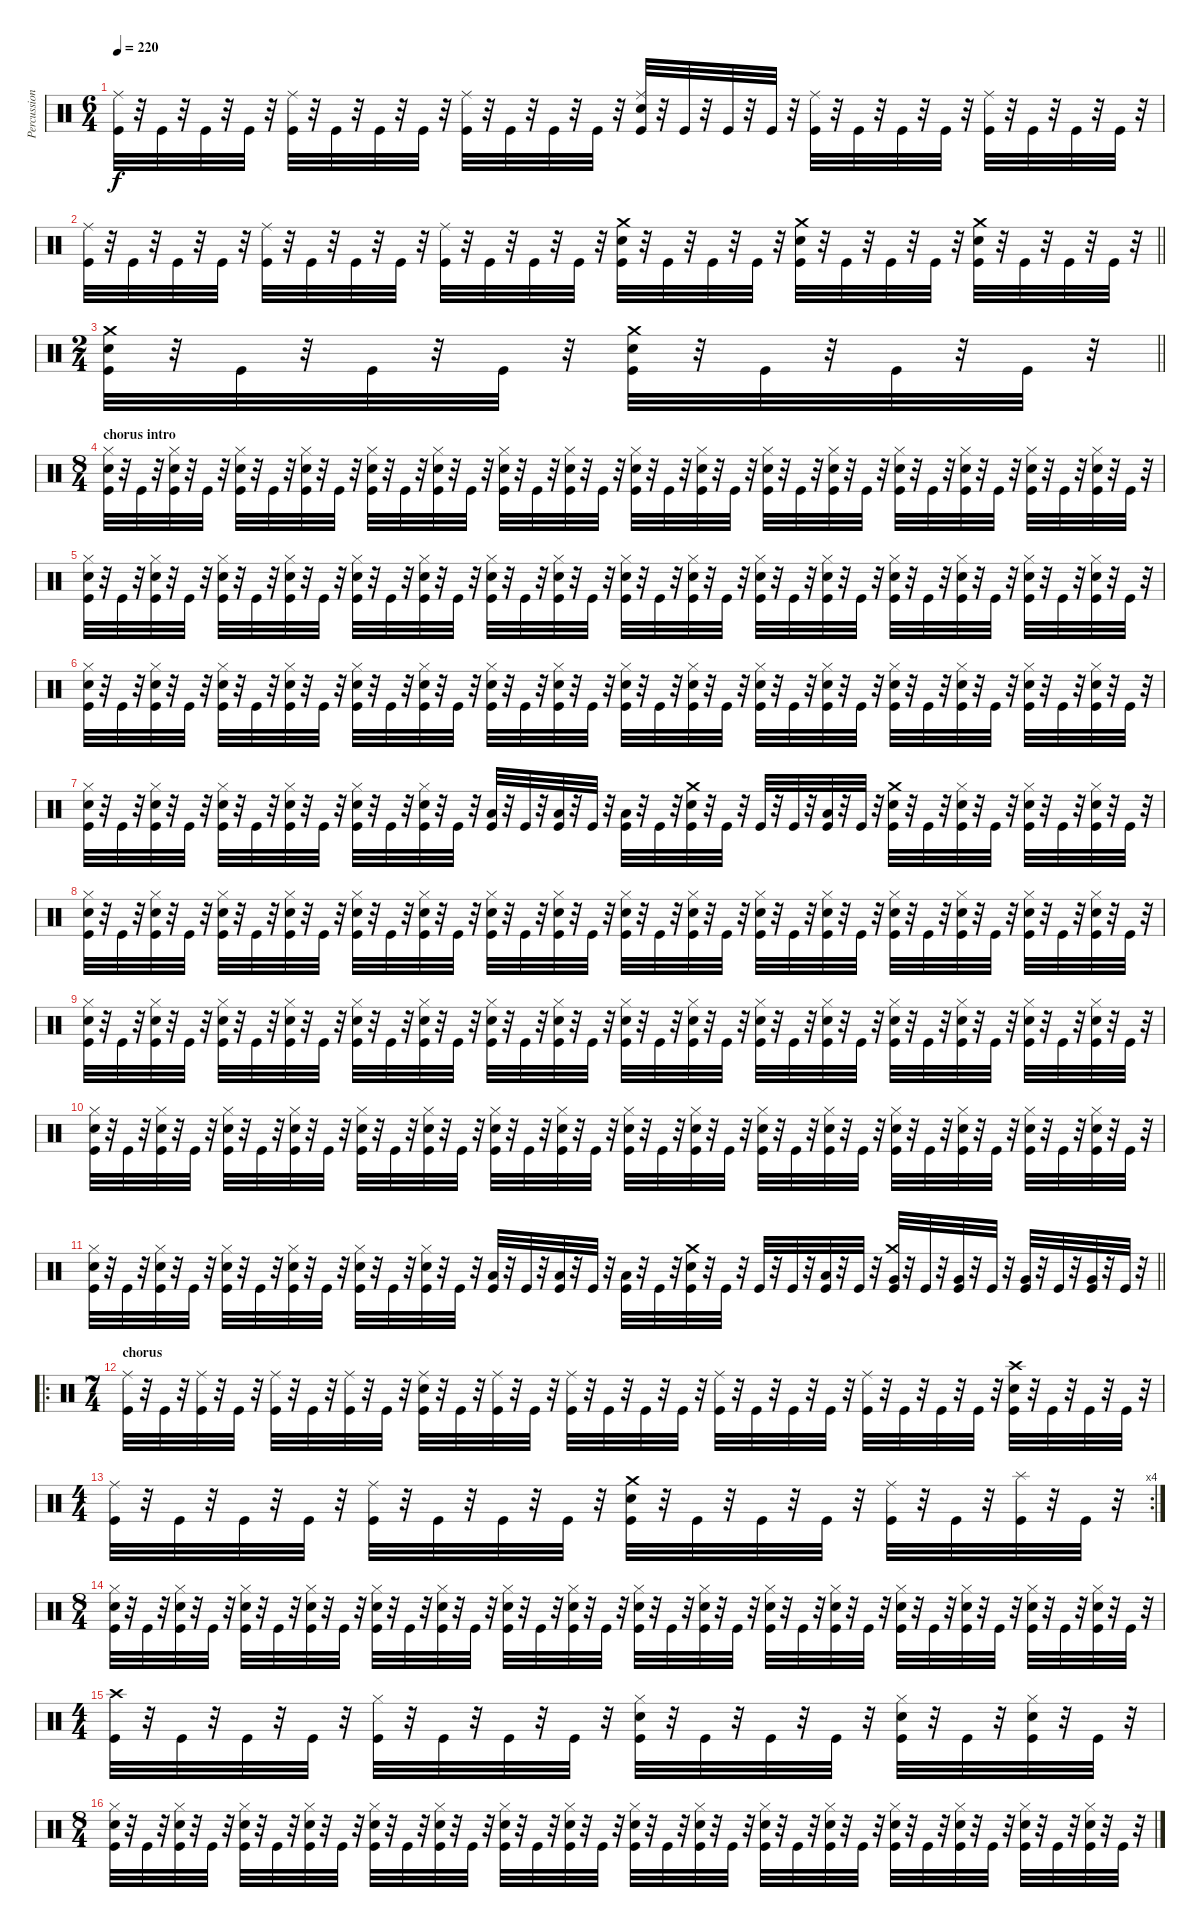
\track ("Percussion" "Percussion") {instrument percussion}
\staff {score}
\articulation defaults
\ts (6 4)
\tempo 220
\clef neutral
\ks c
("Kick (hit)" "Ride (middle)").32{dy f} r.32 "Kick (hit)".32 r.32 "Kick (hit)".32 r.32 "Kick (hit)".32 r.32 ("Kick (hit)" "Ride (middle)").32 r.32 "Kick (hit)".32 r.32 "Kick (hit)".32 r.32 "Kick (hit)".32 r.32 ("Kick (hit)" "Ride (middle)").32 r.32 "Kick (hit)".32 r.32 "Kick (hit)".32 r.32 "Kick (hit)".32 r.32 ("Kick (hit)" "Electric Snare (hit)" "Ride (middle)").32 r.32 "Kick (hit)".32 r.32 "Kick (hit)".32 r.32 "Kick (hit)".32 r.32 ("Kick (hit)" "Ride (middle)").32 r.32 "Kick (hit)".32 r.32 "Kick (hit)".32 r.32 "Kick (hit)".32 r.32 ("Kick (hit)" "Ride (middle)").32 r.32 "Kick (hit)".32 r.32 "Kick (hit)".32 r.32 "Kick (hit)".32 r.32 |
\barLineRight lightlight
("Kick (hit)" "Ride (middle)").32 r.32 "Kick (hit)".32 r.32 "Kick (hit)".32 r.32 "Kick (hit)".32 r.32 ("Kick (hit)" "Ride (middle)").32 r.32 "Kick (hit)".32 r.32 "Kick (hit)".32 r.32 "Kick (hit)".32 r.32 ("Kick (hit)" "Ride (middle)").32 r.32 "Kick (hit)".32 r.32 "Kick (hit)".32 r.32 "Kick (hit)".32 r.32 ("Kick (hit)" "Electric Snare (hit)" "Crash medium (hit)").32 r.32 "Kick (hit)".32 r.32 "Kick (hit)".32 r.32 "Kick (hit)".32 r.32 ("Kick (hit)" "Electric Snare (hit)" "Crash medium (hit)").32 r.32 "Kick (hit)".32 r.32 "Kick (hit)".32 r.32 "Kick (hit)".32 r.32 ("Kick (hit)" "Electric Snare (hit)" "Crash medium (hit)").32 r.32 "Kick (hit)".32 r.32 "Kick (hit)".32 r.32 "Kick (hit)".32 r.32 |
\ts (2 4)
\barLineRight lightlight
("Kick (hit)" "Electric Snare (hit)" "Crash medium (hit)").32 r.32 "Kick (hit)".32 r.32 "Kick (hit)".32 r.32 "Kick (hit)".32 r.32 ("Kick (hit)" "Electric Snare (hit)" "Crash medium (hit)").32 r.32 "Kick (hit)".32 r.32 "Kick (hit)".32 r.32 "Kick (hit)".32 r.32 |
\ts (8 4)
\section ("" "chorus intro")
("Electric Snare (hit)" "Kick (hit)" "Hi-Hat (closed)").32 r.32 "Kick (hit)".32 r.32 ("Electric Snare (hit)" "Kick (hit)" "Hi-Hat (closed)").32 r.32 "Kick (hit)".32 r.32 ("Electric Snare (hit)" "Kick (hit)" "Hi-Hat (closed)").32 r.32 "Kick (hit)".32 r.32 ("Electric Snare (hit)" "Kick (hit)" "Hi-Hat (closed)").32 r.32 "Kick (hit)".32 r.32 ("Electric Snare (hit)" "Kick (hit)" "Hi-Hat (closed)").32 r.32 "Kick (hit)".32 r.32 ("Electric Snare (hit)" "Kick (hit)" "Hi-Hat (closed)").32 r.32 "Kick (hit)".32 r.32 ("Electric Snare (hit)" "Kick (hit)" "Hi-Hat (closed)").32 r.32 "Kick (hit)".32 r.32 ("Electric Snare (hit)" "Kick (hit)" "Hi-Hat (closed)").32 r.32 "Kick (hit)".32 r.32 ("Electric Snare (hit)" "Kick (hit)" "Hi-Hat (closed)").32 r.32 "Kick (hit)".32 r.32 ("Electric Snare (hit)" "Kick (hit)" "Hi-Hat (closed)").32 r.32 "Kick (hit)".32 r.32 ("Electric Snare (hit)" "Kick (hit)" "Hi-Hat (closed)").32 r.32 "Kick (hit)".32 r.32 ("Electric Snare (hit)" "Kick (hit)" "Hi-Hat (closed)").32 r.32 "Kick (hit)".32 r.32 ("Kick (hit)" "Electric Snare (hit)" "Hi-Hat (closed)").32 r.32 "Kick (hit)".32 r.32 ("Kick (hit)" "Electric Snare (hit)" "Hi-Hat (closed)").32 r.32 "Kick (hit)".32 r.32 ("Kick (hit)" "Electric Snare (hit)" "Hi-Hat (closed)").32 r.32 "Kick (hit)".32 r.32 ("Kick (hit)" "Electric Snare (hit)" "Hi-Hat (closed)").32 r.32 "Kick (hit)".32 r.32 |
("Electric Snare (hit)" "Kick (hit)" "Hi-Hat (closed)").32 r.32 "Kick (hit)".32 r.32 ("Electric Snare (hit)" "Kick (hit)" "Hi-Hat (closed)").32 r.32 "Kick (hit)".32 r.32 ("Electric Snare (hit)" "Kick (hit)" "Hi-Hat (closed)").32 r.32 "Kick (hit)".32 r.32 ("Electric Snare (hit)" "Kick (hit)" "Hi-Hat (closed)").32 r.32 "Kick (hit)".32 r.32 ("Electric Snare (hit)" "Kick (hit)" "Hi-Hat (closed)").32 r.32 "Kick (hit)".32 r.32 ("Electric Snare (hit)" "Kick (hit)" "Hi-Hat (closed)").32 r.32 "Kick (hit)".32 r.32 ("Electric Snare (hit)" "Kick (hit)" "Hi-Hat (closed)").32 r.32 "Kick (hit)".32 r.32 ("Electric Snare (hit)" "Kick (hit)" "Hi-Hat (closed)").32 r.32 "Kick (hit)".32 r.32 ("Electric Snare (hit)" "Kick (hit)" "Hi-Hat (closed)").32 r.32 "Kick (hit)".32 r.32 ("Electric Snare (hit)" "Kick (hit)" "Hi-Hat (closed)").32 r.32 "Kick (hit)".32 r.32 ("Electric Snare (hit)" "Kick (hit)" "Hi-Hat (closed)").32 r.32 "Kick (hit)".32 r.32 ("Electric Snare (hit)" "Kick (hit)" "Hi-Hat (closed)").32 r.32 "Kick (hit)".32 r.32 ("Kick (hit)" "Electric Snare (hit)" "Hi-Hat (closed)").32 r.32 "Kick (hit)".32 r.32 ("Kick (hit)" "Electric Snare (hit)" "Hi-Hat (closed)").32 r.32 "Kick (hit)".32 r.32 ("Kick (hit)" "Electric Snare (hit)" "Hi-Hat (closed)").32 r.32 "Kick (hit)".32 r.32 ("Kick (hit)" "Electric Snare (hit)" "Hi-Hat (closed)").32 r.32 "Kick (hit)".32 r.32 |
("Electric Snare (hit)" "Kick (hit)" "Hi-Hat (closed)").32 r.32 "Kick (hit)".32 r.32 ("Electric Snare (hit)" "Kick (hit)" "Hi-Hat (closed)").32 r.32 "Kick (hit)".32 r.32 ("Electric Snare (hit)" "Kick (hit)" "Hi-Hat (closed)").32 r.32 "Kick (hit)".32 r.32 ("Electric Snare (hit)" "Kick (hit)" "Hi-Hat (closed)").32 r.32 "Kick (hit)".32 r.32 ("Electric Snare (hit)" "Kick (hit)" "Hi-Hat (closed)").32 r.32 "Kick (hit)".32 r.32 ("Electric Snare (hit)" "Kick (hit)" "Hi-Hat (closed)").32 r.32 "Kick (hit)".32 r.32 ("Electric Snare (hit)" "Kick (hit)" "Hi-Hat (closed)").32 r.32 "Kick (hit)".32 r.32 ("Electric Snare (hit)" "Kick (hit)" "Hi-Hat (closed)").32 r.32 "Kick (hit)".32 r.32 ("Electric Snare (hit)" "Kick (hit)" "Hi-Hat (closed)").32 r.32 "Kick (hit)".32 r.32 ("Electric Snare (hit)" "Kick (hit)" "Hi-Hat (closed)").32 r.32 "Kick (hit)".32 r.32 ("Electric Snare (hit)" "Kick (hit)" "Hi-Hat (closed)").32 r.32 "Kick (hit)".32 r.32 ("Electric Snare (hit)" "Kick (hit)" "Hi-Hat (closed)").32 r.32 "Kick (hit)".32 r.32 ("Kick (hit)" "Electric Snare (hit)" "Hi-Hat (closed)").32 r.32 "Kick (hit)".32 r.32 ("Kick (hit)" "Electric Snare (hit)" "Hi-Hat (closed)").32 r.32 "Kick (hit)".32 r.32 ("Kick (hit)" "Electric Snare (hit)" "Hi-Hat (closed)").32 r.32 "Kick (hit)".32 r.32 ("Kick (hit)" "Electric Snare (hit)" "Hi-Hat (closed)").32 r.32 "Kick (hit)".32 r.32 |
("Electric Snare (hit)" "Kick (hit)" "Hi-Hat (closed)").32 r.32 "Kick (hit)".32 r.32 ("Electric Snare (hit)" "Kick (hit)" "Hi-Hat (closed)").32 r.32 "Kick (hit)".32 r.32 ("Electric Snare (hit)" "Kick (hit)" "Hi-Hat (closed)").32 r.32 "Kick (hit)".32 r.32 ("Electric Snare (hit)" "Kick (hit)" "Hi-Hat (closed)").32 r.32 "Kick (hit)".32 r.32 ("Electric Snare (hit)" "Kick (hit)" "Hi-Hat (closed)").32 r.32 "Kick (hit)".32 r.32 ("Electric Snare (hit)" "Kick (hit)" "Hi-Hat (closed)").32 r.32 "Kick (hit)".32 r.32 ("Low Floor Tom (hit)" "Kick (hit)").32 r.32 "Kick (hit)".32 r.32 ("Low Floor Tom (hit)" "Kick (hit)").32 r.32 "Kick (hit)".32 r.32 ("Low Floor Tom (hit)" "Kick (hit)").32 r.32 "Kick (hit)".32 r.32 ("Electric Snare (hit)" "Kick (hit)" "Crash medium (hit)").32 r.32 "Kick (hit)".32 r.32 "Kick (hit)".32 r.32 "Kick (hit)".32 r.32 ("Low Floor Tom (hit)" "Kick (hit)").32 r.32 "Kick (hit)".32 r.32 ("Kick (hit)" "Electric Snare (hit)" "Crash medium (hit)").32 r.32 "Kick (hit)".32 r.32 ("Kick (hit)" "Electric Snare (hit)" "Hi-Hat (closed)").32 r.32 "Kick (hit)".32 r.32 ("Kick (hit)" "Electric Snare (hit)" "Hi-Hat (closed)").32 r.32 "Kick (hit)".32 r.32 ("Kick (hit)" "Electric Snare (hit)" "Hi-Hat (closed)").32 r.32 "Kick (hit)".32 r.32 |
("Electric Snare (hit)" "Kick (hit)" "Hi-Hat (closed)").32 r.32 "Kick (hit)".32 r.32 ("Electric Snare (hit)" "Kick (hit)" "Hi-Hat (closed)").32 r.32 "Kick (hit)".32 r.32 ("Electric Snare (hit)" "Kick (hit)" "Hi-Hat (closed)").32 r.32 "Kick (hit)".32 r.32 ("Electric Snare (hit)" "Kick (hit)" "Hi-Hat (closed)").32 r.32 "Kick (hit)".32 r.32 ("Electric Snare (hit)" "Kick (hit)" "Hi-Hat (closed)").32 r.32 "Kick (hit)".32 r.32 ("Electric Snare (hit)" "Kick (hit)" "Hi-Hat (closed)").32 r.32 "Kick (hit)".32 r.32 ("Electric Snare (hit)" "Kick (hit)" "Hi-Hat (closed)").32 r.32 "Kick (hit)".32 r.32 ("Electric Snare (hit)" "Kick (hit)" "Hi-Hat (closed)").32 r.32 "Kick (hit)".32 r.32 ("Electric Snare (hit)" "Kick (hit)" "Hi-Hat (closed)").32 r.32 "Kick (hit)".32 r.32 ("Electric Snare (hit)" "Kick (hit)" "Hi-Hat (closed)").32 r.32 "Kick (hit)".32 r.32 ("Electric Snare (hit)" "Kick (hit)" "Hi-Hat (closed)").32 r.32 "Kick (hit)".32 r.32 ("Electric Snare (hit)" "Kick (hit)" "Hi-Hat (closed)").32 r.32 "Kick (hit)".32 r.32 ("Kick (hit)" "Electric Snare (hit)" "Hi-Hat (closed)").32 r.32 "Kick (hit)".32 r.32 ("Kick (hit)" "Electric Snare (hit)" "Hi-Hat (closed)").32 r.32 "Kick (hit)".32 r.32 ("Kick (hit)" "Electric Snare (hit)" "Hi-Hat (closed)").32 r.32 "Kick (hit)".32 r.32 ("Kick (hit)" "Electric Snare (hit)" "Hi-Hat (closed)").32 r.32 "Kick (hit)".32 r.32 |
("Electric Snare (hit)" "Kick (hit)" "Hi-Hat (closed)").32 r.32 "Kick (hit)".32 r.32 ("Electric Snare (hit)" "Kick (hit)" "Hi-Hat (closed)").32 r.32 "Kick (hit)".32 r.32 ("Electric Snare (hit)" "Kick (hit)" "Hi-Hat (closed)").32 r.32 "Kick (hit)".32 r.32 ("Electric Snare (hit)" "Kick (hit)" "Hi-Hat (closed)").32 r.32 "Kick (hit)".32 r.32 ("Electric Snare (hit)" "Kick (hit)" "Hi-Hat (closed)").32 r.32 "Kick (hit)".32 r.32 ("Electric Snare (hit)" "Kick (hit)" "Hi-Hat (closed)").32 r.32 "Kick (hit)".32 r.32 ("Electric Snare (hit)" "Kick (hit)" "Hi-Hat (closed)").32 r.32 "Kick (hit)".32 r.32 ("Electric Snare (hit)" "Kick (hit)" "Hi-Hat (closed)").32 r.32 "Kick (hit)".32 r.32 ("Electric Snare (hit)" "Kick (hit)" "Hi-Hat (closed)").32 r.32 "Kick (hit)".32 r.32 ("Electric Snare (hit)" "Kick (hit)" "Hi-Hat (closed)").32 r.32 "Kick (hit)".32 r.32 ("Electric Snare (hit)" "Kick (hit)" "Hi-Hat (closed)").32 r.32 "Kick (hit)".32 r.32 ("Electric Snare (hit)" "Kick (hit)" "Hi-Hat (closed)").32 r.32 "Kick (hit)".32 r.32 ("Kick (hit)" "Electric Snare (hit)" "Hi-Hat (closed)").32 r.32 "Kick (hit)".32 r.32 ("Kick (hit)" "Electric Snare (hit)" "Hi-Hat (closed)").32 r.32 "Kick (hit)".32 r.32 ("Kick (hit)" "Electric Snare (hit)" "Hi-Hat (closed)").32 r.32 "Kick (hit)".32 r.32 ("Kick (hit)" "Electric Snare (hit)" "Hi-Hat (closed)").32 r.32 "Kick (hit)".32 r.32 |
("Electric Snare (hit)" "Kick (hit)" "Hi-Hat (closed)").32 r.32 "Kick (hit)".32 r.32 ("Electric Snare (hit)" "Kick (hit)" "Hi-Hat (closed)").32 r.32 "Kick (hit)".32 r.32 ("Electric Snare (hit)" "Kick (hit)" "Hi-Hat (closed)").32 r.32 "Kick (hit)".32 r.32 ("Electric Snare (hit)" "Kick (hit)" "Hi-Hat (closed)").32 r.32 "Kick (hit)".32 r.32 ("Electric Snare (hit)" "Kick (hit)" "Hi-Hat (closed)").32 r.32 "Kick (hit)".32 r.32 ("Electric Snare (hit)" "Kick (hit)" "Hi-Hat (closed)").32 r.32 "Kick (hit)".32 r.32 ("Electric Snare (hit)" "Kick (hit)" "Hi-Hat (closed)").32 r.32 "Kick (hit)".32 r.32 ("Electric Snare (hit)" "Kick (hit)" "Hi-Hat (closed)").32 r.32 "Kick (hit)".32 r.32 ("Electric Snare (hit)" "Kick (hit)" "Hi-Hat (closed)").32 r.32 "Kick (hit)".32 r.32 ("Electric Snare (hit)" "Kick (hit)" "Hi-Hat (closed)").32 r.32 "Kick (hit)".32 r.32 ("Electric Snare (hit)" "Kick (hit)" "Hi-Hat (closed)").32 r.32 "Kick (hit)".32 r.32 ("Electric Snare (hit)" "Kick (hit)" "Hi-Hat (closed)").32 r.32 "Kick (hit)".32 r.32 ("Kick (hit)" "Electric Snare (hit)" "Hi-Hat (closed)").32 r.32 "Kick (hit)".32 r.32 ("Kick (hit)" "Electric Snare (hit)" "Hi-Hat (closed)").32 r.32 "Kick (hit)".32 r.32 ("Kick (hit)" "Electric Snare (hit)" "Hi-Hat (closed)").32 r.32 "Kick (hit)".32 r.32 ("Kick (hit)" "Electric Snare (hit)" "Hi-Hat (closed)").32 r.32 "Kick (hit)".32 r.32 |
\barLineRight lightlight
("Electric Snare (hit)" "Kick (hit)" "Hi-Hat (closed)").32 r.32 "Kick (hit)".32 r.32 ("Electric Snare (hit)" "Kick (hit)" "Hi-Hat (closed)").32 r.32 "Kick (hit)".32 r.32 ("Electric Snare (hit)" "Kick (hit)" "Hi-Hat (closed)").32 r.32 "Kick (hit)".32 r.32 ("Electric Snare (hit)" "Kick (hit)" "Hi-Hat (closed)").32 r.32 "Kick (hit)".32 r.32 ("Electric Snare (hit)" "Kick (hit)" "Hi-Hat (closed)").32 r.32 "Kick (hit)".32 r.32 ("Electric Snare (hit)" "Kick (hit)" "Hi-Hat (closed)").32 r.32 "Kick (hit)".32 r.32 ("Low Floor Tom (hit)" "Kick (hit)").32 r.32 "Kick (hit)".32 r.32 ("Low Floor Tom (hit)" "Kick (hit)").32 r.32 "Kick (hit)".32 r.32 ("Low Floor Tom (hit)" "Kick (hit)").32 r.32 "Kick (hit)".32 r.32 ("Electric Snare (hit)" "Kick (hit)" "Crash medium (hit)").32 r.32 "Kick (hit)".32 r.32 "Kick (hit)".32 r.32 "Kick (hit)".32 r.32 ("Low Floor Tom (hit)" "Kick (hit)").32 r.32 "Kick (hit)".32 r.32 ("Kick (hit)" "Very Low Tom (hit)" "Crash medium (hit)").32 r.32 "Kick (hit)".32 r.32 ("Kick (hit)" "Very Low Tom (hit)").32 r.32 "Kick (hit)".32 r.32 ("Kick (hit)" "Very Low Tom (hit)").32 r.32 "Kick (hit)".32 r.32 ("Kick (hit)" "Very Low Tom (hit)").32 r.32 "Kick (hit)".32 r.32 |
\ro
\ts (7 4)
\section ("" "chorus")
("Kick (hit)" "Ride (middle)").32 r.32 "Kick (hit)".32 r.32 ("Kick (hit)" "Ride (middle)").32 r.32 "Kick (hit)".32 r.32 ("Kick (hit)" "Ride (middle)").32 r.32 "Kick (hit)".32 r.32 ("Kick (hit)" "Ride (middle)").32 r.32 "Kick (hit)".32 r.32 ("Kick (hit)" "Electric Snare (hit)" "Ride (middle)").32 r.32 "Kick (hit)".32 r.32 ("Kick (hit)" "Ride (middle)").32 r.32 "Kick (hit)".32 r.32 ("Kick (hit)" "Ride (middle)").32 r.32 "Kick (hit)".32 r.32 "Kick (hit)".32 r.32 "Kick (hit)".32 r.32 ("Kick (hit)" "Ride (middle)").32 r.32 "Kick (hit)".32 r.32 "Kick (hit)".32 r.32 "Kick (hit)".32 r.32 ("Kick (hit)" "Ride (middle)").32 r.32 "Kick (hit)".32 r.32 "Kick (hit)".32 r.32 "Kick (hit)".32 r.32 ("Kick (hit)" "Electric Snare (hit)" "Crash high (hit)").32 r.32 "Kick (hit)".32 r.32 "Kick (hit)".32 r.32 "Kick (hit)".32 r.32 |
\rc 4
\ts (4 4)
("Kick (hit)" "Ride (middle)").32 r.32 "Kick (hit)".32 r.32 "Kick (hit)".32 r.32 "Kick (hit)".32 r.32 ("Kick (hit)" "Ride (middle)").32 r.32 "Kick (hit)".32 r.32 "Kick (hit)".32 r.32 "Kick (hit)".32 r.32 ("Kick (hit)" "Crash medium (hit)" "Electric Snare (hit)").32 r.32 "Kick (hit)".32 r.32 "Kick (hit)".32 r.32 "Kick (hit)".32 r.32 ("Kick (hit)" "Ride (middle)").32 r.32 "Kick (hit)".32 r.32 ("Kick (hit)" "Splash (hit)").32 r.32 "Kick (hit)".32 r.32 |
\ts (8 4)
("Electric Snare (hit)" "Kick (hit)" "Hi-Hat (closed)").32 r.32 "Kick (hit)".32 r.32 ("Electric Snare (hit)" "Kick (hit)" "Hi-Hat (closed)").32 r.32 "Kick (hit)".32 r.32 ("Electric Snare (hit)" "Kick (hit)" "Hi-Hat (closed)").32 r.32 "Kick (hit)".32 r.32 ("Electric Snare (hit)" "Kick (hit)" "Hi-Hat (closed)").32 r.32 "Kick (hit)".32 r.32 ("Electric Snare (hit)" "Kick (hit)" "Hi-Hat (closed)").32 r.32 "Kick (hit)".32 r.32 ("Electric Snare (hit)" "Kick (hit)" "Hi-Hat (closed)").32 r.32 "Kick (hit)".32 r.32 ("Electric Snare (hit)" "Kick (hit)" "Hi-Hat (closed)").32 r.32 "Kick (hit)".32 r.32 ("Electric Snare (hit)" "Kick (hit)" "Hi-Hat (closed)").32 r.32 "Kick (hit)".32 r.32 ("Electric Snare (hit)" "Kick (hit)" "Hi-Hat (closed)").32 r.32 "Kick (hit)".32 r.32 ("Electric Snare (hit)" "Kick (hit)" "Hi-Hat (closed)").32 r.32 "Kick (hit)".32 r.32 ("Electric Snare (hit)" "Kick (hit)" "Hi-Hat (closed)").32 r.32 "Kick (hit)".32 r.32 ("Electric Snare (hit)" "Kick (hit)" "Hi-Hat (closed)").32 r.32 "Kick (hit)".32 r.32 ("Kick (hit)" "Electric Snare (hit)" "Hi-Hat (closed)").32 r.32 "Kick (hit)".32 r.32 ("Kick (hit)" "Electric Snare (hit)" "Hi-Hat (closed)").32 r.32 "Kick (hit)".32 r.32 ("Kick (hit)" "Electric Snare (hit)" "Hi-Hat (closed)").32 r.32 "Kick (hit)".32 r.32 ("Kick (hit)" "Electric Snare (hit)" "Hi-Hat (closed)").32 r.32 "Kick (hit)".32 r.32 |
\ts (4 4)
("Kick (hit)" "Crash high (hit)").32 r.32 "Kick (hit)".32 r.32 "Kick (hit)".32 r.32 "Kick (hit)".32 r.32 ("Kick (hit)" "Hi-Hat (closed)").32 r.32 "Kick (hit)".32 r.32 "Kick (hit)".32 r.32 "Kick (hit)".32 r.32 ("Kick (hit)" "Electric Snare (hit)" "Hi-Hat (closed)").32 r.32 "Kick (hit)".32 r.32 "Kick (hit)".32 r.32 "Kick (hit)".32 r.32 ("Kick (hit)" "Electric Snare (hit)" "Hi-Hat (closed)").32 r.32 "Kick (hit)".32 r.32 ("Kick (hit)" "Electric Snare (hit)" "Hi-Hat (closed)").32 r.32 "Kick (hit)".32 r.32 |
\ts (8 4)
("Electric Snare (hit)" "Kick (hit)" "Hi-Hat (closed)").32 r.32 "Kick (hit)".32 r.32 ("Electric Snare (hit)" "Kick (hit)" "Hi-Hat (closed)").32 r.32 "Kick (hit)".32 r.32 ("Electric Snare (hit)" "Kick (hit)" "Hi-Hat (closed)").32 r.32 "Kick (hit)".32 r.32 ("Electric Snare (hit)" "Kick (hit)" "Hi-Hat (closed)").32 r.32 "Kick (hit)".32 r.32 ("Electric Snare (hit)" "Kick (hit)" "Hi-Hat (closed)").32 r.32 "Kick (hit)".32 r.32 ("Electric Snare (hit)" "Kick (hit)" "Hi-Hat (closed)").32 r.32 "Kick (hit)".32 r.32 ("Electric Snare (hit)" "Kick (hit)" "Hi-Hat (closed)").32 r.32 "Kick (hit)".32 r.32 ("Electric Snare (hit)" "Kick (hit)" "Hi-Hat (closed)").32 r.32 "Kick (hit)".32 r.32 ("Electric Snare (hit)" "Kick (hit)" "Hi-Hat (closed)").32 r.32 "Kick (hit)".32 r.32 ("Electric Snare (hit)" "Kick (hit)" "Hi-Hat (closed)").32 r.32 "Kick (hit)".32 r.32 ("Electric Snare (hit)" "Kick (hit)" "Hi-Hat (closed)").32 r.32 "Kick (hit)".32 r.32 ("Electric Snare (hit)" "Kick (hit)" "Hi-Hat (closed)").32 r.32 "Kick (hit)".32 r.32 ("Kick (hit)" "Electric Snare (hit)" "Hi-Hat (closed)").32 r.32 "Kick (hit)".32 r.32 ("Kick (hit)" "Electric Snare (hit)" "Hi-Hat (closed)").32 r.32 "Kick (hit)".32 r.32 ("Kick (hit)" "Electric Snare (hit)" "Hi-Hat (closed)").32 r.32 "Kick (hit)".32 r.32 ("Kick (hit)" "Electric Snare (hit)" "Hi-Hat (closed)").32 r.32 "Kick (hit)".32 r.32
